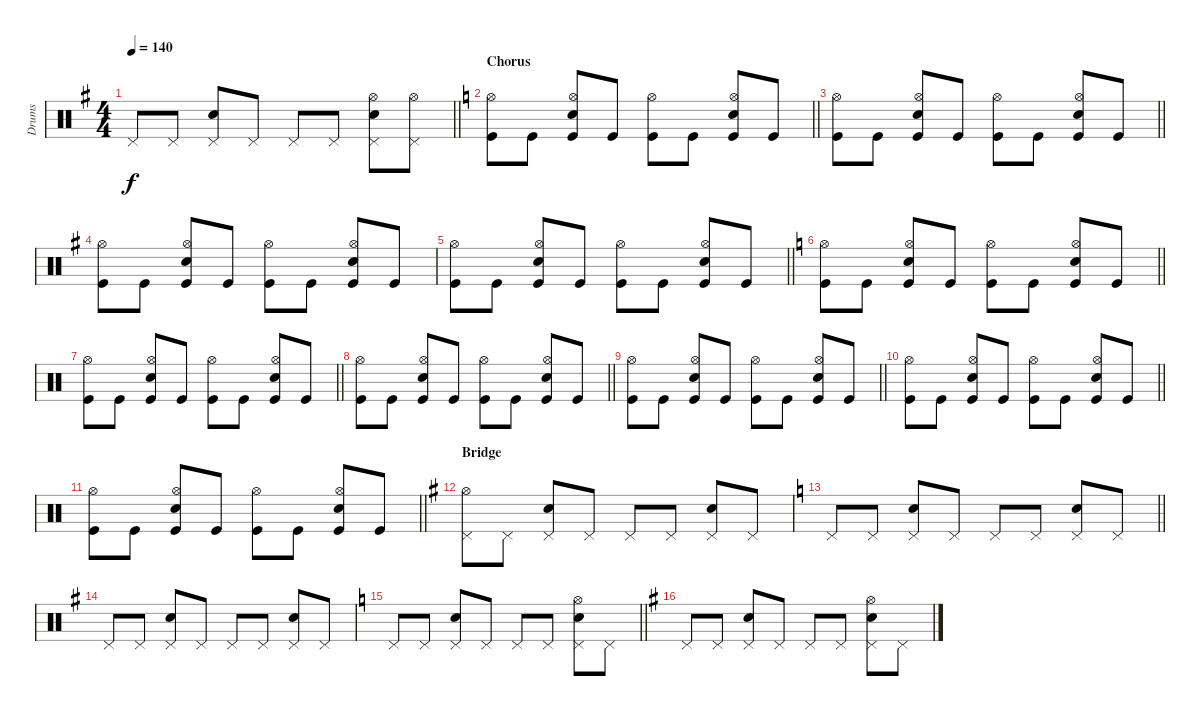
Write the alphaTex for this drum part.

\track ("Drums" "Drums") {instrument percussion}
\staff {score}
\articulation defaults
\ts (4 4)
\tempo 140
\clef neutral
\barLineRight lightlight
\ks g "Pedal Hi-Hat (hit)".8{dy f} "Pedal Hi-Hat (hit)".8
("Pedal Hi-Hat (hit)" "Snare (hit) 2").8 "Pedal Hi-Hat (hit)".8 "Pedal Hi-Hat (hit)".8 "Pedal Hi-Hat (hit)".8 ("Pedal Hi-Hat (hit)" "Hi-Hat (open)" "Snare (hit) 2").8 ("Pedal Hi-Hat (hit)" "Hi-Hat (open)").8 |
\section ("" "Chorus")
\barLineRight lightlight
\ks c
("Hi-Hat (open)" "Kick (hit)").8 "Kick (hit)".8 ("Hi-Hat (open)" "Snare (hit) 2" "Kick (hit)").8 "Kick (hit)".8 ("Hi-Hat (open)" "Kick (hit)").8 "Kick (hit)".8 ("Hi-Hat (open)" "Snare (hit) 2" "Kick (hit)").8 "Kick (hit)".8 |
\barLineRight lightlight
("Hi-Hat (open)" "Kick (hit)").8 "Kick (hit)".8 ("Hi-Hat (open)" "Snare (hit) 2" "Kick (hit)").8 "Kick (hit)".8 ("Hi-Hat (open)" "Kick (hit)").8 "Kick (hit)".8 ("Hi-Hat (open)" "Snare (hit) 2" "Kick (hit)").8 "Kick (hit)".8 |
\ks g
("Hi-Hat (open)" "Kick (hit)").8 "Kick (hit)".8 ("Hi-Hat (open)" "Snare (hit) 2" "Kick (hit)").8 "Kick (hit)".8 ("Hi-Hat (open)" "Kick (hit)").8 "Kick (hit)".8 ("Hi-Hat (open)" "Snare (hit) 2" "Kick (hit)").8 "Kick (hit)".8 |
\barLineRight lightlight
("Hi-Hat (open)" "Kick (hit)").8 "Kick (hit)".8 ("Hi-Hat (open)" "Snare (hit) 2" "Kick (hit)").8 "Kick (hit)".8 ("Hi-Hat (open)" "Kick (hit)").8 "Kick (hit)".8 ("Hi-Hat (open)" "Snare (hit) 2" "Kick (hit)").8 "Kick (hit)".8 |
\barLineRight lightlight
\ks c
("Hi-Hat (open)" "Kick (hit)").8 "Kick (hit)".8 ("Hi-Hat (open)" "Snare (hit) 2" "Kick (hit)").8 "Kick (hit)".8 ("Hi-Hat (open)" "Kick (hit)").8 "Kick (hit)".8 ("Hi-Hat (open)" "Snare (hit) 2" "Kick (hit)").8 "Kick (hit)".8 |
\barLineRight lightlight
("Hi-Hat (open)" "Kick (hit)").8 "Kick (hit)".8 ("Hi-Hat (open)" "Snare (hit) 2" "Kick (hit)").8 "Kick (hit)".8 ("Hi-Hat (open)" "Kick (hit)").8 "Kick (hit)".8 ("Hi-Hat (open)" "Snare (hit) 2" "Kick (hit)").8 "Kick (hit)".8 |
\barLineRight lightlight
("Hi-Hat (open)" "Kick (hit)").8 "Kick (hit)".8 ("Hi-Hat (open)" "Snare (hit) 2" "Kick (hit)").8 "Kick (hit)".8 ("Hi-Hat (open)" "Kick (hit)").8 "Kick (hit)".8 ("Hi-Hat (open)" "Snare (hit) 2" "Kick (hit)").8 "Kick (hit)".8 |
\barLineRight lightlight
("Hi-Hat (open)" "Kick (hit)").8 "Kick (hit)".8 ("Hi-Hat (open)" "Snare (hit) 2" "Kick (hit)").8 "Kick (hit)".8 ("Hi-Hat (open)" "Kick (hit)").8 "Kick (hit)".8 ("Hi-Hat (open)" "Snare (hit) 2" "Kick (hit)").8 "Kick (hit)".8 |
\barLineRight lightlight
("Hi-Hat (open)" "Kick (hit)").8 "Kick (hit)".8 ("Hi-Hat (open)" "Snare (hit) 2" "Kick (hit)").8 "Kick (hit)".8 ("Hi-Hat (open)" "Kick (hit)").8 "Kick (hit)".8 ("Hi-Hat (open)" "Snare (hit) 2" "Kick (hit)").8 "Kick (hit)".8 |
\barLineRight lightlight
("Hi-Hat (open)" "Kick (hit)").8 "Kick (hit)".8 ("Hi-Hat (open)" "Snare (hit) 2" "Kick (hit)").8 "Kick (hit)".8 ("Hi-Hat (open)" "Kick (hit)").8 "Kick (hit)".8 ("Hi-Hat (open)" "Snare (hit) 2" "Kick (hit)").8 "Kick (hit)".8 |
\section ("" "Bridge")
\ks g
("Pedal Hi-Hat (hit)" "Hi-Hat (open)").8 "Pedal Hi-Hat (hit)".8 ("Pedal Hi-Hat (hit)" "Snare (hit) 2").8 "Pedal Hi-Hat (hit)".8 "Pedal Hi-Hat (hit)".8 "Pedal Hi-Hat (hit)".8 ("Pedal Hi-Hat (hit)" "Snare (hit) 2").8 "Pedal Hi-Hat (hit)".8 |
\barLineRight lightlight
\ks c "Pedal Hi-Hat (hit)".8 "Pedal Hi-Hat (hit)".8
("Pedal Hi-Hat (hit)" "Snare (hit) 2").8 "Pedal Hi-Hat (hit)".8 "Pedal Hi-Hat (hit)".8 "Pedal Hi-Hat (hit)".8 ("Pedal Hi-Hat (hit)" "Snare (hit) 2").8 "Pedal Hi-Hat (hit)".8 |
\ks g "Pedal Hi-Hat (hit)".8 "Pedal Hi-Hat (hit)".8
("Pedal Hi-Hat (hit)" "Snare (hit) 2").8 "Pedal Hi-Hat (hit)".8 "Pedal Hi-Hat (hit)".8 "Pedal Hi-Hat (hit)".8 ("Pedal Hi-Hat (hit)" "Snare (hit) 2").8 "Pedal Hi-Hat (hit)".8 |
\barLineRight lightlight
\ks c "Pedal Hi-Hat (hit)".8 "Pedal Hi-Hat (hit)".8
("Pedal Hi-Hat (hit)" "Snare (hit) 2").8 "Pedal Hi-Hat (hit)".8 "Pedal Hi-Hat (hit)".8 "Pedal Hi-Hat (hit)".8 ("Pedal Hi-Hat (hit)" "Hi-Hat (open)" "Snare (hit) 2").8 "Pedal Hi-Hat (hit)".8 |
\ks g "Pedal Hi-Hat (hit)".8 "Pedal Hi-Hat (hit)".8
("Pedal Hi-Hat (hit)" "Snare (hit) 2").8 "Pedal Hi-Hat (hit)".8 "Pedal Hi-Hat (hit)".8 "Pedal Hi-Hat (hit)".8 ("Pedal Hi-Hat (hit)" "Hi-Hat (open)" "Snare (hit) 2").8 "Pedal Hi-Hat (hit)".8
